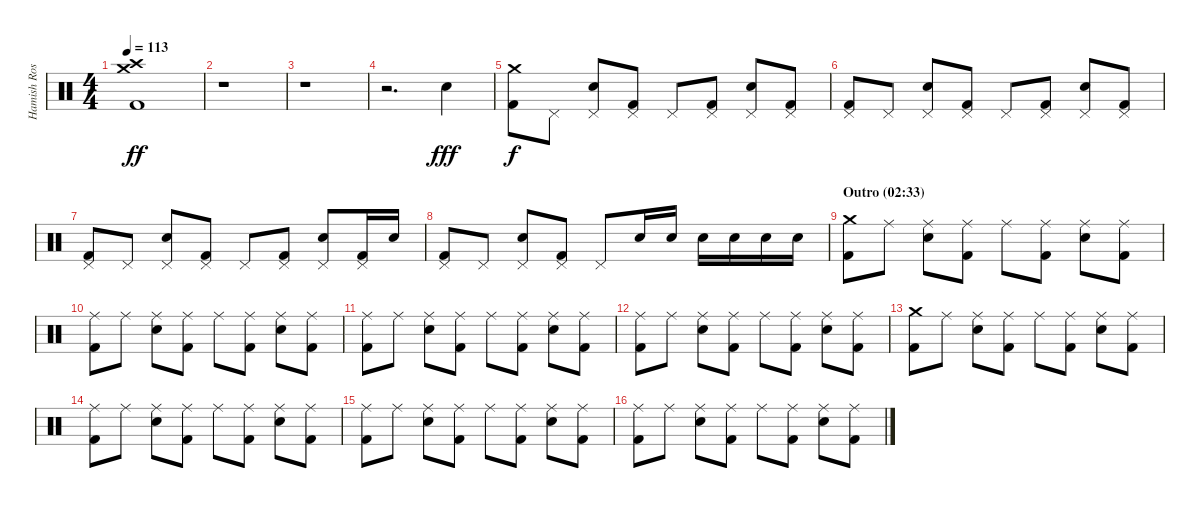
\track ("Hamish Rosser" "Hamish Ros") {instrument percussion}
\staff {score}
\articulation defaults
\ts (4 4)
\tempo 113
\clef neutral
\ks c
("Crash medium (hit)" "Crash high (hit)" "Kick (hit) 2").1{dy ff} |
r.1 |
r.1 |
r.2{d} "Electric Snare (hit)".4{dy fff} |
("Crash medium (hit)" "Kick (hit) 2").8{dy f} "Pedal Hi-Hat (hit)".8 ("Pedal Hi-Hat (hit)" "Electric Snare (hit)").8 ("Pedal Hi-Hat (hit)" "Kick (hit) 2").8 "Pedal Hi-Hat (hit)".8 ("Pedal Hi-Hat (hit)" "Kick (hit) 2").8 ("Pedal Hi-Hat (hit)" "Electric Snare (hit)").8 ("Pedal Hi-Hat (hit)" "Kick (hit) 2").8 |
("Pedal Hi-Hat (hit)" "Kick (hit) 2").8 "Pedal Hi-Hat (hit)".8 ("Pedal Hi-Hat (hit)" "Electric Snare (hit)").8 ("Pedal Hi-Hat (hit)" "Kick (hit) 2").8 "Pedal Hi-Hat (hit)".8 ("Pedal Hi-Hat (hit)" "Kick (hit) 2").8 ("Pedal Hi-Hat (hit)" "Electric Snare (hit)").8 ("Pedal Hi-Hat (hit)" "Kick (hit) 2").8 |
("Pedal Hi-Hat (hit)" "Kick (hit) 2").8 "Pedal Hi-Hat (hit)".8 ("Pedal Hi-Hat (hit)" "Electric Snare (hit)").8 ("Pedal Hi-Hat (hit)" "Kick (hit) 2").8 "Pedal Hi-Hat (hit)".8 ("Pedal Hi-Hat (hit)" "Kick (hit) 2").8 ("Pedal Hi-Hat (hit)" "Electric Snare (hit)").8 ("Pedal Hi-Hat (hit)" "Kick (hit) 2").16 "Electric Snare (hit)".16 |
("Pedal Hi-Hat (hit)" "Kick (hit) 2").8 "Pedal Hi-Hat (hit)".8 ("Pedal Hi-Hat (hit)" "Electric Snare (hit)").8 ("Pedal Hi-Hat (hit)" "Kick (hit) 2").8 "Pedal Hi-Hat (hit)".8 "Electric Snare (hit)".16 "Electric Snare (hit)".16 "Electric Snare (hit)".16 "Electric Snare (hit)".16 "Electric Snare (hit)".16 "Electric Snare (hit)".16 |
\section ("" "Outro (02:33)")
("Crash medium (hit)" "Kick (hit) 2").8 "Ride (middle)".8 ("Ride (middle)" "Electric Snare (hit)").8 ("Ride (middle)" "Kick (hit) 2").8 "Ride (middle)".8 ("Ride (middle)" "Kick (hit) 2").8 ("Ride (middle)" "Electric Snare (hit)").8 ("Ride (middle)" "Kick (hit) 2").8 |
("Ride (middle)" "Kick (hit) 2").8 "Ride (middle)".8 ("Ride (middle)" "Electric Snare (hit)").8 ("Ride (middle)" "Kick (hit) 2").8 "Ride (middle)".8 ("Ride (middle)" "Kick (hit) 2").8 ("Ride (middle)" "Electric Snare (hit)").8 ("Ride (middle)" "Kick (hit) 2").8 |
("Ride (middle)" "Kick (hit) 2").8 "Ride (middle)".8 ("Ride (middle)" "Electric Snare (hit)").8 ("Ride (middle)" "Kick (hit) 2").8 "Ride (middle)".8 ("Ride (middle)" "Kick (hit) 2").8 ("Ride (middle)" "Electric Snare (hit)").8 ("Ride (middle)" "Kick (hit) 2").8 |
("Ride (middle)" "Kick (hit) 2").8 "Ride (middle)".8 ("Ride (middle)" "Electric Snare (hit)").8 ("Ride (middle)" "Kick (hit) 2").8 "Ride (middle)".8 ("Ride (middle)" "Kick (hit) 2").8 ("Ride (middle)" "Electric Snare (hit)").8 ("Ride (middle)" "Kick (hit) 2").8 |
("Crash medium (hit)" "Kick (hit) 2").8 "Ride (middle)".8 ("Ride (middle)" "Electric Snare (hit)").8 ("Ride (middle)" "Kick (hit) 2").8 "Ride (middle)".8 ("Ride (middle)" "Kick (hit) 2").8 ("Ride (middle)" "Electric Snare (hit)").8 ("Ride (middle)" "Kick (hit) 2").8 |
("Ride (middle)" "Kick (hit) 2").8 "Ride (middle)".8 ("Ride (middle)" "Electric Snare (hit)").8 ("Ride (middle)" "Kick (hit) 2").8 "Ride (middle)".8 ("Ride (middle)" "Kick (hit) 2").8 ("Ride (middle)" "Electric Snare (hit)").8 ("Ride (middle)" "Kick (hit) 2").8 |
("Ride (middle)" "Kick (hit) 2").8 "Ride (middle)".8 ("Ride (middle)" "Electric Snare (hit)").8 ("Ride (middle)" "Kick (hit) 2").8 "Ride (middle)".8 ("Ride (middle)" "Kick (hit) 2").8 ("Ride (middle)" "Electric Snare (hit)").8 ("Ride (middle)" "Kick (hit) 2").8 |
("Ride (middle)" "Kick (hit) 2").8 "Ride (middle)".8 ("Ride (middle)" "Electric Snare (hit)").8 ("Ride (middle)" "Kick (hit) 2").8 "Ride (middle)".8 ("Ride (middle)" "Kick (hit) 2").8 ("Ride (middle)" "Electric Snare (hit)").8 ("Ride (middle)" "Kick (hit) 2").8
